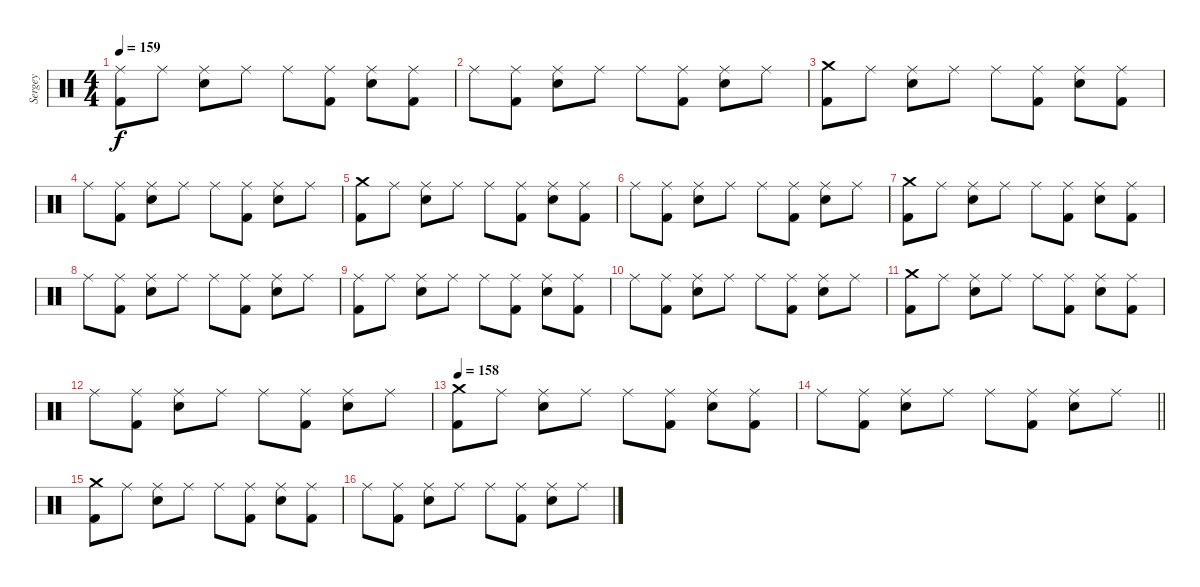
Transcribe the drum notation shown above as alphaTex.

\track ("Sergey" "Sergey") {instrument percussion}
\staff {score}
\articulation defaults
\ts (4 4)
\tempo 159
\clef neutral
\ks c
("Ride (middle)" "Kick (hit) 2").8{dy f} "Ride (middle)".8 ("Ride (middle)" "Electric Snare (hit)").8 "Ride (middle)".8 "Ride (middle)".8 ("Ride (middle)" "Kick (hit) 2").8 ("Ride (middle)" "Electric Snare (hit)").8 ("Ride (middle)" "Kick (hit) 2").8 |
"Ride (middle)".8 ("Ride (middle)" "Kick (hit) 2").8 ("Ride (middle)" "Electric Snare (hit)").8 "Ride (middle)".8 "Ride (middle)".8 ("Ride (middle)" "Kick (hit) 2").8 ("Ride (middle)" "Electric Snare (hit)").8 "Ride (middle)".8 |
("Crash medium (hit)" "Kick (hit) 2").8 "Ride (middle)".8 ("Ride (middle)" "Electric Snare (hit)").8 "Ride (middle)".8 "Ride (middle)".8 ("Ride (middle)" "Kick (hit) 2").8 ("Ride (middle)" "Electric Snare (hit)").8 ("Ride (middle)" "Kick (hit) 2").8 |
"Ride (middle)".8 ("Ride (middle)" "Kick (hit) 2").8 ("Ride (middle)" "Electric Snare (hit)").8 "Ride (middle)".8 "Ride (middle)".8 ("Ride (middle)" "Kick (hit) 2").8 ("Ride (middle)" "Electric Snare (hit)").8 "Ride (middle)".8 |
("Crash medium (hit)" "Kick (hit) 2").8 "Ride (middle)".8 ("Ride (middle)" "Electric Snare (hit)").8 "Ride (middle)".8 "Ride (middle)".8 ("Ride (middle)" "Kick (hit) 2").8 ("Ride (middle)" "Electric Snare (hit)").8 ("Ride (middle)" "Kick (hit) 2").8 |
"Ride (middle)".8 ("Ride (middle)" "Kick (hit) 2").8 ("Ride (middle)" "Electric Snare (hit)").8 "Ride (middle)".8 "Ride (middle)".8 ("Ride (middle)" "Kick (hit) 2").8 ("Ride (middle)" "Electric Snare (hit)").8 "Ride (middle)".8 |
("Crash medium (hit)" "Kick (hit) 2").8 "Ride (middle)".8 ("Ride (middle)" "Electric Snare (hit)").8 "Ride (middle)".8 "Ride (middle)".8 ("Ride (middle)" "Kick (hit) 2").8 ("Ride (middle)" "Electric Snare (hit)").8 ("Ride (middle)" "Kick (hit) 2").8 |
"Ride (middle)".8 ("Ride (middle)" "Kick (hit) 2").8 ("Ride (middle)" "Electric Snare (hit)").8 "Ride (middle)".8 "Ride (middle)".8 ("Ride (middle)" "Kick (hit) 2").8 ("Ride (middle)" "Electric Snare (hit)").8 "Ride (middle)".8 |
("Ride (middle)" "Kick (hit) 2").8 "Ride (middle)".8 ("Ride (middle)" "Electric Snare (hit)").8 "Ride (middle)".8 "Ride (middle)".8 ("Ride (middle)" "Kick (hit) 2").8 ("Ride (middle)" "Electric Snare (hit)").8 ("Ride (middle)" "Kick (hit) 2").8 |
"Ride (middle)".8 ("Ride (middle)" "Kick (hit) 2").8 ("Ride (middle)" "Electric Snare (hit)").8 "Ride (middle)".8 "Ride (middle)".8 ("Ride (middle)" "Kick (hit) 2").8 ("Ride (middle)" "Electric Snare (hit)").8 "Ride (middle)".8 |
("Crash medium (hit)" "Kick (hit) 2").8 "Ride (middle)".8 ("Ride (middle)" "Electric Snare (hit)").8 "Ride (middle)".8 "Ride (middle)".8 ("Ride (middle)" "Kick (hit) 2").8 ("Ride (middle)" "Electric Snare (hit)").8 ("Ride (middle)" "Kick (hit) 2").8 |
"Ride (middle)".8 ("Ride (middle)" "Kick (hit) 2").8 ("Ride (middle)" "Electric Snare (hit)").8 "Ride (middle)".8 "Ride (middle)".8 ("Ride (middle)" "Kick (hit) 2").8 ("Ride (middle)" "Electric Snare (hit)").8 "Ride (middle)".8 |
\tempo 158
("Crash medium (hit)" "Kick (hit) 2").8 "Ride (middle)".8 ("Ride (middle)" "Electric Snare (hit)").8 "Ride (middle)".8 "Ride (middle)".8 ("Ride (middle)" "Kick (hit) 2").8 ("Ride (middle)" "Electric Snare (hit)").8 ("Ride (middle)" "Kick (hit) 2").8 |
\barLineRight lightlight "Ride (middle)".8
("Ride (middle)" "Kick (hit) 2").8 ("Ride (middle)" "Electric Snare (hit)").8 "Ride (middle)".8 "Ride (middle)".8 ("Ride (middle)" "Kick (hit) 2").8 ("Ride (middle)" "Electric Snare (hit)").8 "Ride (middle)".8 |
\section ("" "")
("Crash medium (hit)" "Kick (hit) 2").8 "Ride (middle)".8 ("Ride (middle)" "Electric Snare (hit)").8 "Ride (middle)".8 "Ride (middle)".8 ("Ride (middle)" "Kick (hit) 2").8 ("Ride (middle)" "Electric Snare (hit)").8 ("Ride (middle)" "Kick (hit) 2").8 |
"Ride (middle)".8 ("Ride (middle)" "Kick (hit) 2").8 ("Ride (middle)" "Electric Snare (hit)").8 "Ride (middle)".8 "Ride (middle)".8 ("Ride (middle)" "Kick (hit) 2").8 ("Ride (middle)" "Electric Snare (hit)").8 "Ride (middle)".8
